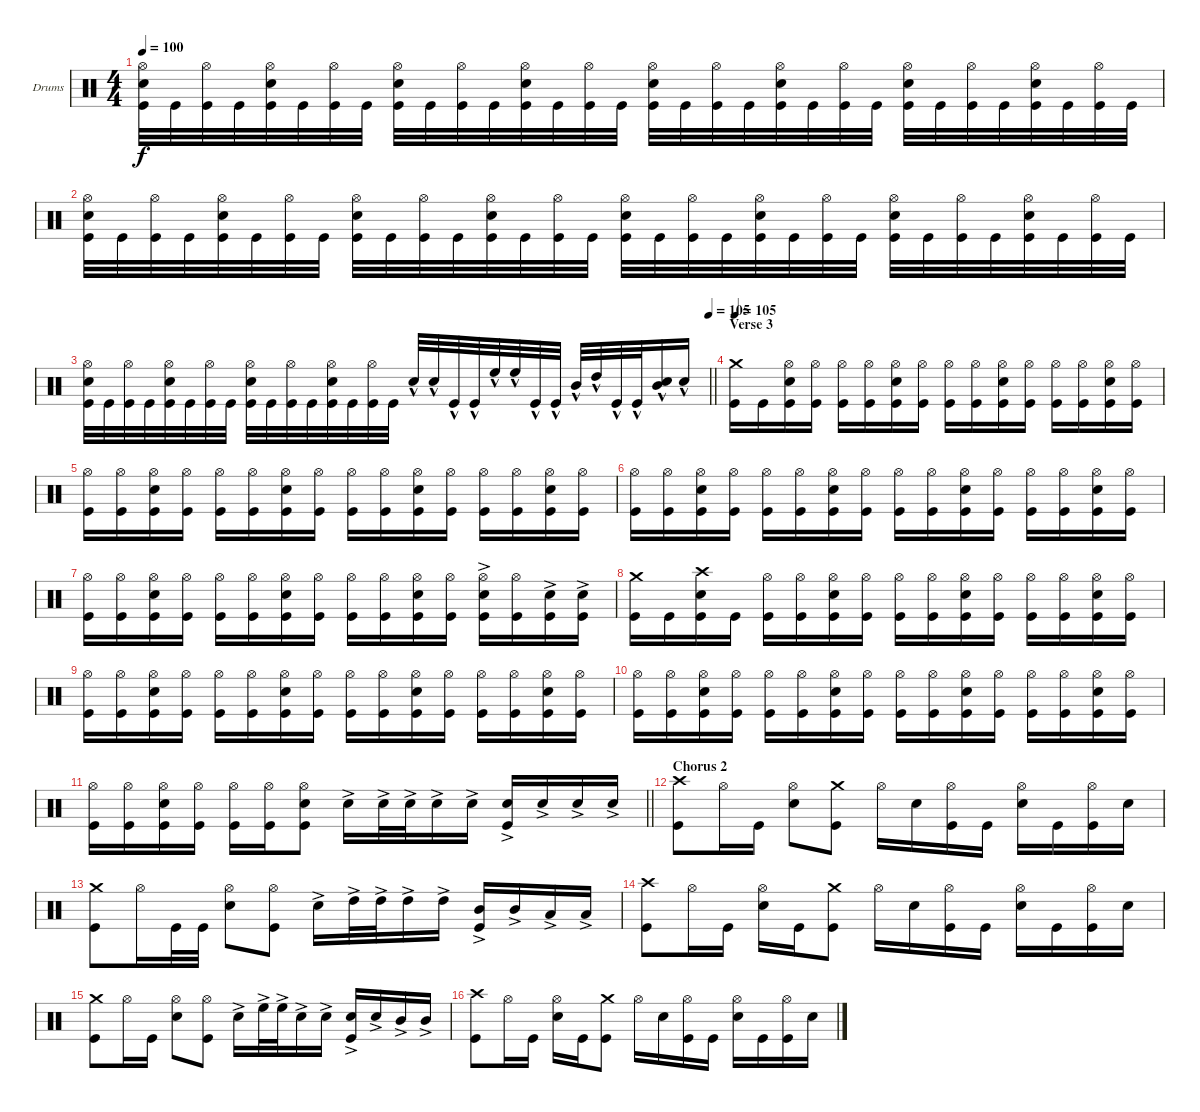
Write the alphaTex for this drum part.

\bracketExtendMode groupsimilarinstruments
\firstSystemTrackNameOrientation horizontal
\otherSystemsTrackNameOrientation horizontal
\track ("Drumkit" "Drums") {instrument percussion}
\staff {score}
\articulation defaults
\ts (4 4)
\tempo 100
\clef neutral
\ks c
("Hi-Hat (open)" "Snare (hit) 2" "Kick (hit)").32{dy f} "Kick (hit)".32 ("Hi-Hat (open)" "Kick (hit)").32 "Kick (hit)".32 ("Hi-Hat (open)" "Snare (hit) 2" "Kick (hit)").32 "Kick (hit)".32 ("Hi-Hat (open)" "Kick (hit)").32 "Kick (hit)".32 ("Hi-Hat (open)" "Snare (hit) 2" "Kick (hit)").32 "Kick (hit)".32 ("Hi-Hat (open)" "Kick (hit)").32 "Kick (hit)".32 ("Hi-Hat (open)" "Snare (hit) 2" "Kick (hit)").32 "Kick (hit)".32 ("Hi-Hat (open)" "Kick (hit)").32 "Kick (hit)".32 ("Hi-Hat (open)" "Snare (hit) 2" "Kick (hit)").32 "Kick (hit)".32 ("Hi-Hat (open)" "Kick (hit)").32 "Kick (hit)".32 ("Hi-Hat (open)" "Snare (hit) 2" "Kick (hit)").32 "Kick (hit)".32 ("Hi-Hat (open)" "Kick (hit)").32 "Kick (hit)".32 ("Hi-Hat (open)" "Snare (hit) 2" "Kick (hit)").32 "Kick (hit)".32 ("Hi-Hat (open)" "Kick (hit)").32 "Kick (hit)".32 ("Hi-Hat (open)" "Snare (hit) 2" "Kick (hit)").32 "Kick (hit)".32 ("Hi-Hat (open)" "Kick (hit)").32 "Kick (hit)".32 |
("Hi-Hat (open)" "Snare (hit) 2" "Kick (hit)").32 "Kick (hit)".32 ("Hi-Hat (open)" "Kick (hit)").32 "Kick (hit)".32 ("Hi-Hat (open)" "Snare (hit) 2" "Kick (hit)").32 "Kick (hit)".32 ("Hi-Hat (open)" "Kick (hit)").32 "Kick (hit)".32 ("Hi-Hat (open)" "Snare (hit) 2" "Kick (hit)").32 "Kick (hit)".32 ("Hi-Hat (open)" "Kick (hit)").32 "Kick (hit)".32 ("Hi-Hat (open)" "Snare (hit) 2" "Kick (hit)").32 "Kick (hit)".32 ("Hi-Hat (open)" "Kick (hit)").32 "Kick (hit)".32 ("Hi-Hat (open)" "Snare (hit) 2" "Kick (hit)").32 "Kick (hit)".32 ("Hi-Hat (open)" "Kick (hit)").32 "Kick (hit)".32 ("Hi-Hat (open)" "Snare (hit) 2" "Kick (hit)").32 "Kick (hit)".32 ("Hi-Hat (open)" "Kick (hit)").32 "Kick (hit)".32 ("Hi-Hat (open)" "Snare (hit) 2" "Kick (hit)").32 "Kick (hit)".32 ("Hi-Hat (open)" "Kick (hit)").32 "Kick (hit)".32 ("Hi-Hat (open)" "Snare (hit) 2" "Kick (hit)").32 "Kick (hit)".32 ("Hi-Hat (open)" "Kick (hit)").32 "Kick (hit)".32 |
\tempo (105 1)
\barLineRight lightlight
("Hi-Hat (open)" "Snare (hit) 2" "Kick (hit)").32 "Kick (hit)".32 ("Hi-Hat (open)" "Kick (hit)").32 "Kick (hit)".32 ("Hi-Hat (open)" "Snare (hit) 2" "Kick (hit)").32 "Kick (hit)".32 ("Hi-Hat (open)" "Kick (hit)").32 "Kick (hit)".32 ("Hi-Hat (open)" "Snare (hit) 2" "Kick (hit)").32 "Kick (hit)".32 ("Hi-Hat (open)" "Kick (hit)").32 "Kick (hit)".32 ("Hi-Hat (open)" "Snare (hit) 2" "Kick (hit)").32 "Kick (hit)".32 ("Hi-Hat (open)" "Kick (hit)").32 "Kick (hit)".32 "Snare (hit) 2"{hac}.32 "Snare (hit) 2"{hac}.32 "Kick (hit)"{hac}.32 "Kick (hit)"{hac}.32 "High Floor Tom (hit)"{hac}.32 "High Floor Tom (hit)"{hac}.32 "Kick (hit)"{hac}.32 "Kick (hit)"{hac}.32 "Mid Tom (hit)"{hac}.32 "High Tom (hit)"{hac}.32 "Kick (hit)"{hac}.32 "Kick (hit)"{hac}.32 ("Mid Tom (hit)"{hac} "Snare (hit) 2"{hac}).16 "Snare (hit) 2"{hac}.16 |
\section ("" "Verse 3")
\tempo 105
("Crash medium (hit)" "Kick (hit)").16 "Kick (hit)".16 ("Hi-Hat (open)" "Snare (hit) 2" "Kick (hit)").16 ("Hi-Hat (open)" "Kick (hit)").16 ("Hi-Hat (open)" "Kick (hit)").16 ("Hi-Hat (open)" "Kick (hit)").16 ("Hi-Hat (open)" "Snare (hit) 2" "Kick (hit)").16 ("Hi-Hat (open)" "Kick (hit)").16 ("Hi-Hat (open)" "Kick (hit)").16 ("Hi-Hat (open)" "Kick (hit)").16 ("Hi-Hat (open)" "Snare (hit) 2" "Kick (hit)").16 ("Hi-Hat (open)" "Kick (hit)").16 ("Hi-Hat (open)" "Kick (hit)").16 ("Hi-Hat (open)" "Kick (hit)").16 ("Hi-Hat (open)" "Snare (hit) 2" "Kick (hit)").16 ("Hi-Hat (open)" "Kick (hit)").16 |
("Hi-Hat (open)" "Kick (hit)").16 ("Hi-Hat (open)" "Kick (hit)").16 ("Hi-Hat (open)" "Snare (hit) 2" "Kick (hit)").16 ("Hi-Hat (open)" "Kick (hit)").16 ("Hi-Hat (open)" "Kick (hit)").16 ("Hi-Hat (open)" "Kick (hit)").16 ("Hi-Hat (open)" "Snare (hit) 2" "Kick (hit)").16 ("Hi-Hat (open)" "Kick (hit)").16 ("Hi-Hat (open)" "Kick (hit)").16 ("Hi-Hat (open)" "Kick (hit)").16 ("Hi-Hat (open)" "Snare (hit) 2" "Kick (hit)").16 ("Hi-Hat (open)" "Kick (hit)").16 ("Hi-Hat (open)" "Kick (hit)").16 ("Hi-Hat (open)" "Kick (hit)").16 ("Hi-Hat (open)" "Snare (hit) 2" "Kick (hit)").16 ("Hi-Hat (open)" "Kick (hit)").16 |
("Hi-Hat (open)" "Kick (hit)").16 ("Hi-Hat (open)" "Kick (hit)").16 ("Hi-Hat (open)" "Snare (hit) 2" "Kick (hit)").16 ("Hi-Hat (open)" "Kick (hit)").16 ("Hi-Hat (open)" "Kick (hit)").16 ("Hi-Hat (open)" "Kick (hit)").16 ("Hi-Hat (open)" "Snare (hit) 2" "Kick (hit)").16 ("Hi-Hat (open)" "Kick (hit)").16 ("Hi-Hat (open)" "Kick (hit)").16 ("Hi-Hat (open)" "Kick (hit)").16 ("Hi-Hat (open)" "Snare (hit) 2" "Kick (hit)").16 ("Hi-Hat (open)" "Kick (hit)").16 ("Hi-Hat (open)" "Kick (hit)").16 ("Hi-Hat (open)" "Kick (hit)").16 ("Hi-Hat (open)" "Snare (hit) 2" "Kick (hit)").16 ("Hi-Hat (open)" "Kick (hit)").16 |
("Hi-Hat (open)" "Kick (hit)").16 ("Hi-Hat (open)" "Kick (hit)").16 ("Hi-Hat (open)" "Snare (hit) 2" "Kick (hit)").16 ("Hi-Hat (open)" "Kick (hit)").16 ("Hi-Hat (open)" "Kick (hit)").16 ("Hi-Hat (open)" "Kick (hit)").16 ("Hi-Hat (open)" "Snare (hit) 2" "Kick (hit)").16 ("Hi-Hat (open)" "Kick (hit)").16 ("Hi-Hat (open)" "Kick (hit)").16 ("Hi-Hat (open)" "Kick (hit)").16 ("Hi-Hat (open)" "Snare (hit) 2" "Kick (hit)").16 ("Hi-Hat (open)" "Kick (hit)").16 ("Hi-Hat (open)" "Snare (hit) 2"{ac} "Kick (hit)").16 ("Hi-Hat (open)" "Kick (hit)").16 ("Snare (hit) 2"{ac} "Kick (hit)").16 ("Snare (hit) 2"{ac} "Kick (hit)").16 |
("Crash medium (hit)" "Kick (hit)").16 "Kick (hit)".16 ("Crash high (hit)" "Snare (hit) 2" "Kick (hit)").16 "Kick (hit)".16 ("Hi-Hat (open)" "Kick (hit)").16 ("Hi-Hat (open)" "Kick (hit)").16 ("Hi-Hat (open)" "Snare (hit) 2" "Kick (hit)").16 ("Hi-Hat (open)" "Kick (hit)").16 ("Hi-Hat (open)" "Kick (hit)").16 ("Hi-Hat (open)" "Kick (hit)").16 ("Hi-Hat (open)" "Snare (hit) 2" "Kick (hit)").16 ("Hi-Hat (open)" "Kick (hit)").16 ("Hi-Hat (open)" "Kick (hit)").16 ("Hi-Hat (open)" "Kick (hit)").16 ("Hi-Hat (open)" "Snare (hit) 2" "Kick (hit)").16 ("Hi-Hat (open)" "Kick (hit)").16 |
("Hi-Hat (open)" "Kick (hit)").16 ("Hi-Hat (open)" "Kick (hit)").16 ("Hi-Hat (open)" "Snare (hit) 2" "Kick (hit)").16 ("Hi-Hat (open)" "Kick (hit)").16 ("Hi-Hat (open)" "Kick (hit)").16 ("Hi-Hat (open)" "Kick (hit)").16 ("Hi-Hat (open)" "Snare (hit) 2" "Kick (hit)").16 ("Hi-Hat (open)" "Kick (hit)").16 ("Hi-Hat (open)" "Kick (hit)").16 ("Hi-Hat (open)" "Kick (hit)").16 ("Hi-Hat (open)" "Snare (hit) 2" "Kick (hit)").16 ("Hi-Hat (open)" "Kick (hit)").16 ("Hi-Hat (open)" "Kick (hit)").16 ("Hi-Hat (open)" "Kick (hit)").16 ("Hi-Hat (open)" "Snare (hit) 2" "Kick (hit)").16 ("Hi-Hat (open)" "Kick (hit)").16 |
("Hi-Hat (open)" "Kick (hit)").16 ("Hi-Hat (open)" "Kick (hit)").16 ("Hi-Hat (open)" "Snare (hit) 2" "Kick (hit)").16 ("Hi-Hat (open)" "Kick (hit)").16 ("Hi-Hat (open)" "Kick (hit)").16 ("Hi-Hat (open)" "Kick (hit)").16 ("Hi-Hat (open)" "Snare (hit) 2" "Kick (hit)").16 ("Hi-Hat (open)" "Kick (hit)").16 ("Hi-Hat (open)" "Kick (hit)").16 ("Hi-Hat (open)" "Kick (hit)").16 ("Hi-Hat (open)" "Snare (hit) 2" "Kick (hit)").16 ("Hi-Hat (open)" "Kick (hit)").16 ("Hi-Hat (open)" "Kick (hit)").16 ("Hi-Hat (open)" "Kick (hit)").16 ("Hi-Hat (open)" "Snare (hit) 2" "Kick (hit)").16 ("Hi-Hat (open)" "Kick (hit)").16 |
\barLineRight lightlight
("Hi-Hat (open)" "Kick (hit)").16 ("Hi-Hat (open)" "Kick (hit)").16 ("Hi-Hat (open)" "Snare (hit) 2" "Kick (hit)").16 ("Hi-Hat (open)" "Kick (hit)").16 ("Hi-Hat (open)" "Kick (hit)").16 ("Hi-Hat (open)" "Kick (hit)").16 ("Hi-Hat (open)" "Snare (hit) 2" "Kick (hit)").8 "Snare (hit) 2"{ac}.16 "Snare (hit) 2"{ac}.32 "Snare (hit) 2"{ac}.32 "Snare (hit) 2"{ac}.16 "Snare (hit) 2"{ac}.16 ("Snare (hit) 2"{ac} "Kick (hit)").16 "Snare (hit) 2"{ac}.16 "Snare (hit) 2"{ac}.16 "Snare (hit) 2"{ac}.16 |
\section ("" "Chorus 2")
("Crash high (hit)" "Kick (hit)").8 "Hi-Hat (open)".16 "Kick (hit)".16 ("Hi-Hat (open)" "Snare (hit) 2").8 ("Crash medium (hit)" "Kick (hit)").8 "Hi-Hat (open)".16 "Snare (hit) 2".16 ("Hi-Hat (open)" "Kick (hit)").16 "Kick (hit)".16 ("Hi-Hat (open)" "Snare (hit) 2").16 "Kick (hit)".16 ("Hi-Hat (open)" "Kick (hit)").16 "Snare (hit) 2".16 |
("Crash medium (hit)" "Kick (hit)").8 "Hi-Hat (open)".16 "Kick (hit)".32 "Kick (hit)".32 ("Hi-Hat (open)" "Snare (hit) 2").8 ("Hi-Hat (open)" "Kick (hit)").8 "Snare (hit) 2"{ac}.16 "High Tom (hit)"{ac}.32 "High Tom (hit)"{ac}.32 "High Tom (hit)"{ac}.16 "High Tom (hit)"{ac}.16 ("Mid Tom (hit)"{ac} "Kick (hit)").16 "Mid Tom (hit)"{ac}.16 "Low Tom (hit)"{ac}.16 "Low Tom (hit)"{ac}.16 |
("Crash high (hit)" "Kick (hit)").8 "Hi-Hat (open)".16 "Kick (hit)".16 ("Hi-Hat (open)" "Snare (hit) 2").16 "Kick (hit)".16 ("Crash medium (hit)" "Kick (hit)").8 "Hi-Hat (open)".16 "Snare (hit) 2".16 ("Hi-Hat (open)" "Kick (hit)").16 "Kick (hit)".16 ("Hi-Hat (open)" "Snare (hit) 2").16 "Kick (hit)".16 ("Hi-Hat (open)" "Kick (hit)").16 "Snare (hit) 2".16 |
("Crash medium (hit)" "Kick (hit)").8 "Hi-Hat (open)".16 "Kick (hit)".16 ("Hi-Hat (open)" "Snare (hit) 2").8 ("Hi-Hat (open)" "Kick (hit)").8 "Snare (hit) 2"{ac}.16 "High Floor Tom (hit)"{ac}.32 "High Floor Tom (hit)"{ac}.32 "Snare (hit) 2"{ac}.16 "Snare (hit) 2"{ac}.16 ("Snare (hit) 2"{ac} "Kick (hit)").16 "Snare (hit) 2"{ac}.16 "Mid Tom (hit)"{ac}.16 "Mid Tom (hit)"{ac}.16 |
("Crash high (hit)" "Kick (hit)").8 "Hi-Hat (open)".16 "Kick (hit)".16 ("Hi-Hat (open)" "Snare (hit) 2").16 "Kick (hit)".16 ("Crash medium (hit)" "Kick (hit)").8 "Hi-Hat (open)".16 "Snare (hit) 2".16 ("Hi-Hat (open)" "Kick (hit)").16 "Kick (hit)".16 ("Hi-Hat (open)" "Snare (hit) 2").16 "Kick (hit)".16 ("Hi-Hat (open)" "Kick (hit)").16 "Snare (hit) 2".16
